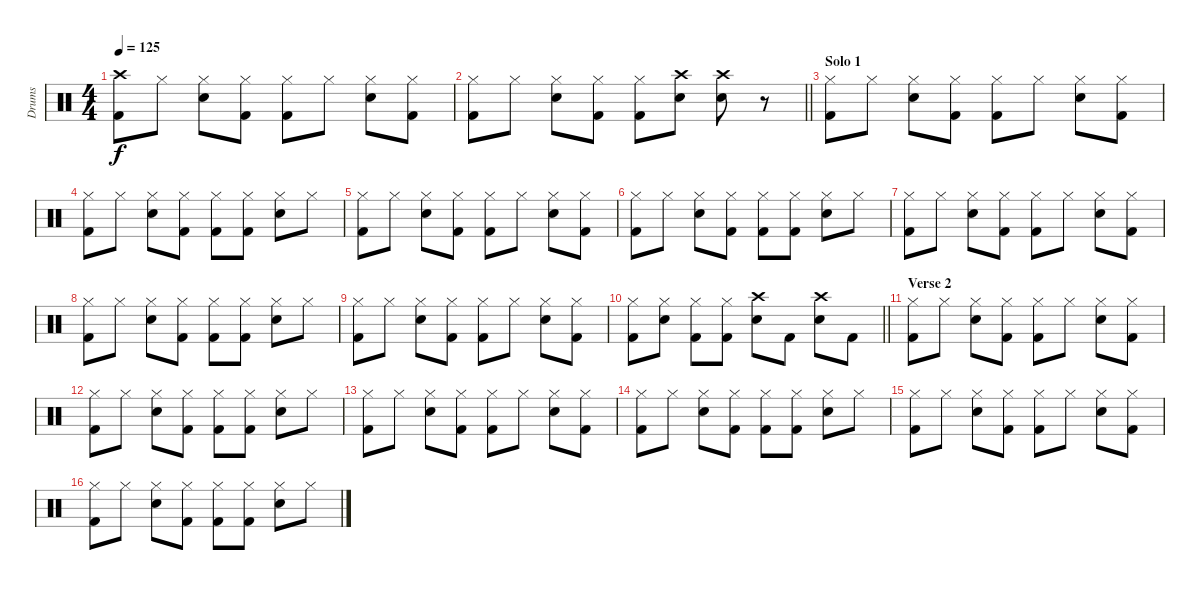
\track ("Drums" "Drums") {instrument percussion}
\staff {score}
\articulation defaults
\ts (4 4)
\tempo 125
\clef neutral
\ks c
("Crash high (hit)" "Kick (hit) 2").8{dy f} "Hi-Hat (closed)".8 ("Hi-Hat (closed)" "Snare (hit) 2").8 ("Hi-Hat (closed)" "Kick (hit) 2").8 ("Hi-Hat (closed)" "Kick (hit) 2").8 "Hi-Hat (closed)".8 ("Hi-Hat (closed)" "Snare (hit) 2").8 ("Hi-Hat (closed)" "Kick (hit) 2").8 |
\barLineRight lightlight
("Hi-Hat (closed)" "Kick (hit) 2").8 "Hi-Hat (closed)".8 ("Hi-Hat (closed)" "Snare (hit) 2").8 ("Hi-Hat (closed)" "Kick (hit) 2").8 ("Hi-Hat (closed)" "Kick (hit) 2").8 ("Crash high (hit)" "Snare (hit) 2").8 ("Crash high (hit)" "Snare (hit) 2").8 r.8 |
\section ("" "Solo 1")
("Hi-Hat (closed)" "Kick (hit) 2").8 "Hi-Hat (closed)".8 ("Hi-Hat (closed)" "Snare (hit) 2").8 ("Hi-Hat (closed)" "Kick (hit) 2").8 ("Hi-Hat (closed)" "Kick (hit) 2").8 "Hi-Hat (closed)".8 ("Hi-Hat (closed)" "Snare (hit) 2").8 ("Hi-Hat (closed)" "Kick (hit) 2").8 |
("Hi-Hat (closed)" "Kick (hit) 2").8 "Hi-Hat (closed)".8 ("Hi-Hat (closed)" "Snare (hit) 2").8 ("Hi-Hat (closed)" "Kick (hit) 2").8 ("Hi-Hat (closed)" "Kick (hit) 2").8 ("Hi-Hat (closed)" "Kick (hit) 2").8 ("Hi-Hat (closed)" "Snare (hit) 2").8 "Hi-Hat (closed)".8 |
("Hi-Hat (closed)" "Kick (hit) 2").8 "Hi-Hat (closed)".8 ("Hi-Hat (closed)" "Snare (hit) 2").8 ("Hi-Hat (closed)" "Kick (hit) 2").8 ("Hi-Hat (closed)" "Kick (hit) 2").8 "Hi-Hat (closed)".8 ("Hi-Hat (closed)" "Snare (hit) 2").8 ("Hi-Hat (closed)" "Kick (hit) 2").8 |
("Hi-Hat (closed)" "Kick (hit) 2").8 "Hi-Hat (closed)".8 ("Hi-Hat (closed)" "Snare (hit) 2").8 ("Hi-Hat (closed)" "Kick (hit) 2").8 ("Hi-Hat (closed)" "Kick (hit) 2").8 ("Hi-Hat (closed)" "Kick (hit) 2").8 ("Hi-Hat (closed)" "Snare (hit) 2").8 "Hi-Hat (closed)".8 |
("Hi-Hat (closed)" "Kick (hit) 2").8 "Hi-Hat (closed)".8 ("Hi-Hat (closed)" "Snare (hit) 2").8 ("Hi-Hat (closed)" "Kick (hit) 2").8 ("Hi-Hat (closed)" "Kick (hit) 2").8 "Hi-Hat (closed)".8 ("Hi-Hat (closed)" "Snare (hit) 2").8 ("Hi-Hat (closed)" "Kick (hit) 2").8 |
("Hi-Hat (closed)" "Kick (hit) 2").8 "Hi-Hat (closed)".8 ("Hi-Hat (closed)" "Snare (hit) 2").8 ("Hi-Hat (closed)" "Kick (hit) 2").8 ("Hi-Hat (closed)" "Kick (hit) 2").8 ("Hi-Hat (closed)" "Kick (hit) 2").8 ("Hi-Hat (closed)" "Snare (hit) 2").8 "Hi-Hat (closed)".8 |
("Hi-Hat (closed)" "Kick (hit) 2").8 "Hi-Hat (closed)".8 ("Hi-Hat (closed)" "Snare (hit) 2").8 ("Hi-Hat (closed)" "Kick (hit) 2").8 ("Hi-Hat (closed)" "Kick (hit) 2").8 "Hi-Hat (closed)".8 ("Hi-Hat (closed)" "Snare (hit) 2").8 ("Hi-Hat (closed)" "Kick (hit) 2").8 |
\barLineRight lightlight
("Hi-Hat (closed)" "Kick (hit) 2").8 ("Hi-Hat (closed)" "Snare (hit) 2").8 ("Hi-Hat (closed)" "Kick (hit) 2").8 ("Hi-Hat (closed)" "Kick (hit) 2").8 ("Crash high (hit)" "Snare (hit) 2").8 "Kick (hit) 2".8 ("Crash high (hit)" "Snare (hit) 2").8 "Kick (hit) 2".8 |
\section ("" "Verse 2")
("Hi-Hat (closed)" "Kick (hit) 2").8 "Hi-Hat (closed)".8 ("Hi-Hat (closed)" "Snare (hit) 2").8 ("Hi-Hat (closed)" "Kick (hit) 2").8 ("Hi-Hat (closed)" "Kick (hit) 2").8 "Hi-Hat (closed)".8 ("Hi-Hat (closed)" "Snare (hit) 2").8 ("Hi-Hat (closed)" "Kick (hit) 2").8 |
("Hi-Hat (closed)" "Kick (hit) 2").8 "Hi-Hat (closed)".8 ("Hi-Hat (closed)" "Snare (hit) 2").8 ("Hi-Hat (closed)" "Kick (hit) 2").8 ("Hi-Hat (closed)" "Kick (hit) 2").8 ("Hi-Hat (closed)" "Kick (hit) 2").8 ("Hi-Hat (closed)" "Snare (hit) 2").8 "Hi-Hat (closed)".8 |
("Hi-Hat (closed)" "Kick (hit) 2").8 "Hi-Hat (closed)".8 ("Hi-Hat (closed)" "Snare (hit) 2").8 ("Hi-Hat (closed)" "Kick (hit) 2").8 ("Hi-Hat (closed)" "Kick (hit) 2").8 "Hi-Hat (closed)".8 ("Hi-Hat (closed)" "Snare (hit) 2").8 ("Hi-Hat (closed)" "Kick (hit) 2").8 |
("Hi-Hat (closed)" "Kick (hit) 2").8 "Hi-Hat (closed)".8 ("Hi-Hat (closed)" "Snare (hit) 2").8 ("Hi-Hat (closed)" "Kick (hit) 2").8 ("Hi-Hat (closed)" "Kick (hit) 2").8 ("Hi-Hat (closed)" "Kick (hit) 2").8 ("Hi-Hat (closed)" "Snare (hit) 2").8 "Hi-Hat (closed)".8 |
("Hi-Hat (closed)" "Kick (hit) 2").8 "Hi-Hat (closed)".8 ("Hi-Hat (closed)" "Snare (hit) 2").8 ("Hi-Hat (closed)" "Kick (hit) 2").8 ("Hi-Hat (closed)" "Kick (hit) 2").8 "Hi-Hat (closed)".8 ("Hi-Hat (closed)" "Snare (hit) 2").8 ("Hi-Hat (closed)" "Kick (hit) 2").8 |
("Hi-Hat (closed)" "Kick (hit) 2").8 "Hi-Hat (closed)".8 ("Hi-Hat (closed)" "Snare (hit) 2").8 ("Hi-Hat (closed)" "Kick (hit) 2").8 ("Hi-Hat (closed)" "Kick (hit) 2").8 ("Hi-Hat (closed)" "Kick (hit) 2").8 ("Hi-Hat (closed)" "Snare (hit) 2").8 "Hi-Hat (closed)".8
